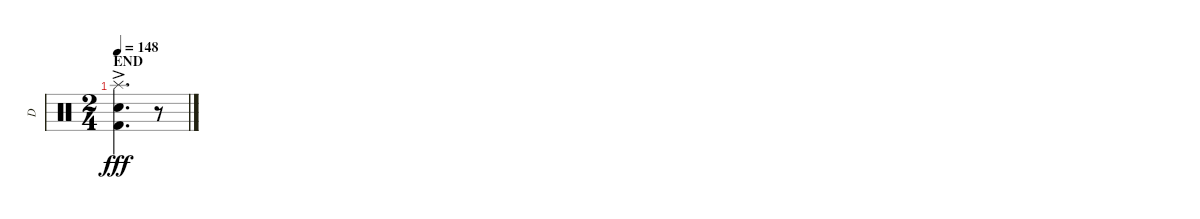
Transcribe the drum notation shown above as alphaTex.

\track ("D" "D") {instrument percussion}
\staff {score}
\articulation defaults
\ts (2 4)
\section ("" "END")
\tempo 148
\clef neutral
\ks c
("Splash (hit)" "Electric Snare (hit)"{ac} "Kick (hit) 2").4{d dy fff} r.8
